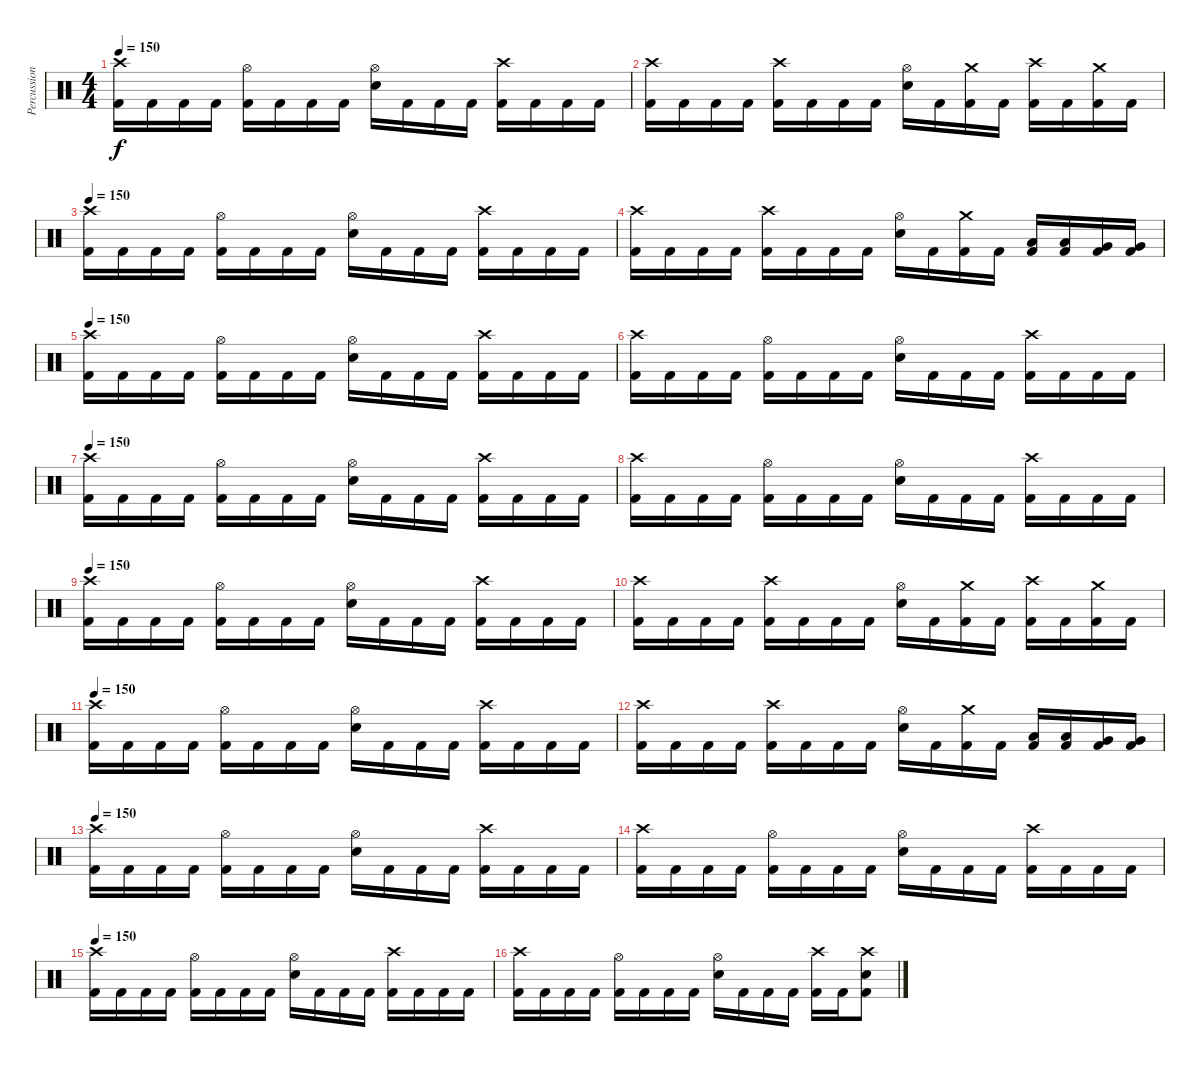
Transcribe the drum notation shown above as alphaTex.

\track ("Percussion" "Percussion") {instrument percussion}
\staff {score}
\articulation defaults
\ts (4 4)
\tempo 150
\clef neutral
\ks c
("Crash high (hit)" "Kick (hit) 2").16{dy f} "Kick (hit) 2".16 "Kick (hit) 2".16 "Kick (hit) 2".16 ("Hi-Hat (open)" "Kick (hit) 2").16 "Kick (hit) 2".16 "Kick (hit) 2".16 "Kick (hit) 2".16 ("Hi-Hat (open)" "Electric Snare (hit)").16 "Kick (hit) 2".16 "Kick (hit) 2".16 "Kick (hit) 2".16 ("Crash high (hit)" "Kick (hit) 2").16 "Kick (hit) 2".16 "Kick (hit) 2".16 "Kick (hit) 2".16 |
("Crash high (hit)" "Kick (hit) 2").16 "Kick (hit) 2".16 "Kick (hit) 2".16 "Kick (hit) 2".16 ("Crash high (hit)" "Kick (hit) 2").16 "Kick (hit) 2".16 "Kick (hit) 2".16 "Kick (hit) 2".16 ("Hi-Hat (open)" "Electric Snare (hit)").16 "Kick (hit) 2".16 ("Crash medium (hit)" "Kick (hit) 2").16 "Kick (hit) 2".16 ("Crash high (hit)" "Kick (hit) 2").16 "Kick (hit) 2".16 ("Crash medium (hit)" "Kick (hit) 2").16 "Kick (hit) 2".16 |
\tempo 150
("Crash high (hit)" "Kick (hit) 2").16 "Kick (hit) 2".16 "Kick (hit) 2".16 "Kick (hit) 2".16 ("Hi-Hat (open)" "Kick (hit) 2").16 "Kick (hit) 2".16 "Kick (hit) 2".16 "Kick (hit) 2".16 ("Hi-Hat (open)" "Electric Snare (hit)").16 "Kick (hit) 2".16 "Kick (hit) 2".16 "Kick (hit) 2".16 ("Crash high (hit)" "Kick (hit) 2").16 "Kick (hit) 2".16 "Kick (hit) 2".16 "Kick (hit) 2".16 |
("Crash high (hit)" "Kick (hit) 2").16 "Kick (hit) 2".16 "Kick (hit) 2".16 "Kick (hit) 2".16 ("Crash high (hit)" "Kick (hit) 2").16 "Kick (hit) 2".16 "Kick (hit) 2".16 "Kick (hit) 2".16 ("Hi-Hat (open)" "Electric Snare (hit)").16 "Kick (hit) 2".16 ("Crash medium (hit)" "Kick (hit) 2").16 "Kick (hit) 2".16 ("Low Tom (hit)" "Kick (hit) 2").16 ("Low Tom (hit)" "Kick (hit) 2").16 ("Very Low Tom (hit)" "Kick (hit) 2").16 ("Very Low Tom (hit)" "Kick (hit) 2").16 |
\tempo 150
("Crash high (hit)" "Kick (hit) 2").16 "Kick (hit) 2".16 "Kick (hit) 2".16 "Kick (hit) 2".16 ("Hi-Hat (open)" "Kick (hit) 2").16 "Kick (hit) 2".16 "Kick (hit) 2".16 "Kick (hit) 2".16 ("Hi-Hat (open)" "Electric Snare (hit)").16 "Kick (hit) 2".16 "Kick (hit) 2".16 "Kick (hit) 2".16 ("Crash high (hit)" "Kick (hit) 2").16 "Kick (hit) 2".16 "Kick (hit) 2".16 "Kick (hit) 2".16 |
("Crash high (hit)" "Kick (hit) 2").16 "Kick (hit) 2".16 "Kick (hit) 2".16 "Kick (hit) 2".16 ("Hi-Hat (open)" "Kick (hit) 2").16 "Kick (hit) 2".16 "Kick (hit) 2".16 "Kick (hit) 2".16 ("Hi-Hat (open)" "Electric Snare (hit)").16 "Kick (hit) 2".16 "Kick (hit) 2".16 "Kick (hit) 2".16 ("Crash high (hit)" "Kick (hit) 2").16 "Kick (hit) 2".16 "Kick (hit) 2".16 "Kick (hit) 2".16 |
\tempo 150
("Crash high (hit)" "Kick (hit) 2").16 "Kick (hit) 2".16 "Kick (hit) 2".16 "Kick (hit) 2".16 ("Hi-Hat (open)" "Kick (hit) 2").16 "Kick (hit) 2".16 "Kick (hit) 2".16 "Kick (hit) 2".16 ("Hi-Hat (open)" "Electric Snare (hit)").16 "Kick (hit) 2".16 "Kick (hit) 2".16 "Kick (hit) 2".16 ("Crash high (hit)" "Kick (hit) 2").16 "Kick (hit) 2".16 "Kick (hit) 2".16 "Kick (hit) 2".16 |
("Crash high (hit)" "Kick (hit) 2").16 "Kick (hit) 2".16 "Kick (hit) 2".16 "Kick (hit) 2".16 ("Hi-Hat (open)" "Kick (hit) 2").16 "Kick (hit) 2".16 "Kick (hit) 2".16 "Kick (hit) 2".16 ("Hi-Hat (open)" "Electric Snare (hit)").16 "Kick (hit) 2".16 "Kick (hit) 2".16 "Kick (hit) 2".16 ("Crash high (hit)" "Kick (hit) 2").16 "Kick (hit) 2".16 "Kick (hit) 2".16 "Kick (hit) 2".16 |
\tempo 150
("Crash high (hit)" "Kick (hit) 2").16 "Kick (hit) 2".16 "Kick (hit) 2".16 "Kick (hit) 2".16 ("Hi-Hat (open)" "Kick (hit) 2").16 "Kick (hit) 2".16 "Kick (hit) 2".16 "Kick (hit) 2".16 ("Hi-Hat (open)" "Electric Snare (hit)").16 "Kick (hit) 2".16 "Kick (hit) 2".16 "Kick (hit) 2".16 ("Crash high (hit)" "Kick (hit) 2").16 "Kick (hit) 2".16 "Kick (hit) 2".16 "Kick (hit) 2".16 |
("Crash high (hit)" "Kick (hit) 2").16 "Kick (hit) 2".16 "Kick (hit) 2".16 "Kick (hit) 2".16 ("Crash high (hit)" "Kick (hit) 2").16 "Kick (hit) 2".16 "Kick (hit) 2".16 "Kick (hit) 2".16 ("Hi-Hat (open)" "Electric Snare (hit)").16 "Kick (hit) 2".16 ("Crash medium (hit)" "Kick (hit) 2").16 "Kick (hit) 2".16 ("Crash high (hit)" "Kick (hit) 2").16 "Kick (hit) 2".16 ("Crash medium (hit)" "Kick (hit) 2").16 "Kick (hit) 2".16 |
\tempo 150
("Crash high (hit)" "Kick (hit) 2").16 "Kick (hit) 2".16 "Kick (hit) 2".16 "Kick (hit) 2".16 ("Hi-Hat (open)" "Kick (hit) 2").16 "Kick (hit) 2".16 "Kick (hit) 2".16 "Kick (hit) 2".16 ("Hi-Hat (open)" "Electric Snare (hit)").16 "Kick (hit) 2".16 "Kick (hit) 2".16 "Kick (hit) 2".16 ("Crash high (hit)" "Kick (hit) 2").16 "Kick (hit) 2".16 "Kick (hit) 2".16 "Kick (hit) 2".16 |
("Crash high (hit)" "Kick (hit) 2").16 "Kick (hit) 2".16 "Kick (hit) 2".16 "Kick (hit) 2".16 ("Crash high (hit)" "Kick (hit) 2").16 "Kick (hit) 2".16 "Kick (hit) 2".16 "Kick (hit) 2".16 ("Hi-Hat (open)" "Electric Snare (hit)").16 "Kick (hit) 2".16 ("Crash medium (hit)" "Kick (hit) 2").16 "Kick (hit) 2".16 ("Low Tom (hit)" "Kick (hit) 2").16 ("Low Tom (hit)" "Kick (hit) 2").16 ("Very Low Tom (hit)" "Kick (hit) 2").16 ("Very Low Tom (hit)" "Kick (hit) 2").16 |
\tempo 150
("Crash high (hit)" "Kick (hit) 2").16 "Kick (hit) 2".16 "Kick (hit) 2".16 "Kick (hit) 2".16 ("Hi-Hat (open)" "Kick (hit) 2").16 "Kick (hit) 2".16 "Kick (hit) 2".16 "Kick (hit) 2".16 ("Hi-Hat (open)" "Electric Snare (hit)").16 "Kick (hit) 2".16 "Kick (hit) 2".16 "Kick (hit) 2".16 ("Crash high (hit)" "Kick (hit) 2").16 "Kick (hit) 2".16 "Kick (hit) 2".16 "Kick (hit) 2".16 |
("Crash high (hit)" "Kick (hit) 2").16 "Kick (hit) 2".16 "Kick (hit) 2".16 "Kick (hit) 2".16 ("Hi-Hat (open)" "Kick (hit) 2").16 "Kick (hit) 2".16 "Kick (hit) 2".16 "Kick (hit) 2".16 ("Hi-Hat (open)" "Electric Snare (hit)").16 "Kick (hit) 2".16 "Kick (hit) 2".16 "Kick (hit) 2".16 ("Crash high (hit)" "Kick (hit) 2").16 "Kick (hit) 2".16 "Kick (hit) 2".16 "Kick (hit) 2".16 |
\tempo 150
("Crash high (hit)" "Kick (hit) 2").16 "Kick (hit) 2".16 "Kick (hit) 2".16 "Kick (hit) 2".16 ("Hi-Hat (open)" "Kick (hit) 2").16 "Kick (hit) 2".16 "Kick (hit) 2".16 "Kick (hit) 2".16 ("Hi-Hat (open)" "Electric Snare (hit)").16 "Kick (hit) 2".16 "Kick (hit) 2".16 "Kick (hit) 2".16 ("Crash high (hit)" "Kick (hit) 2").16 "Kick (hit) 2".16 "Kick (hit) 2".16 "Kick (hit) 2".16 |
("Crash high (hit)" "Kick (hit) 2").16 "Kick (hit) 2".16 "Kick (hit) 2".16 "Kick (hit) 2".16 ("Hi-Hat (open)" "Kick (hit) 2").16 "Kick (hit) 2".16 "Kick (hit) 2".16 "Kick (hit) 2".16 ("Hi-Hat (open)" "Electric Snare (hit)").16 "Kick (hit) 2".16 "Kick (hit) 2".16 "Kick (hit) 2".16 ("Crash high (hit)" "Kick (hit) 2").16 "Kick (hit) 2".16 ("Crash high (hit)" "Electric Snare (hit)" "Kick (hit) 2").8
